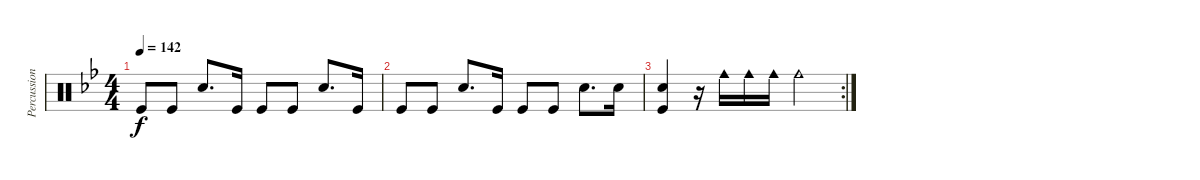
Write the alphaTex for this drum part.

\track ("Percussion" "Percussion") {instrument percussion}
\staff {score}
\articulation defaults
\ts (4 4)
\tempo 142
\clef neutral
\ks gminor "Kick (hit)".8{dy f} "Kick (hit)".8 "Snare (hit) 2".8{d} "Kick (hit)".16 "Kick (hit)".8 "Kick (hit)".8 "Snare (hit) 2".8{d} "Kick (hit)".16
|
"Kick (hit)".8 "Kick (hit)".8 "Snare (hit) 2".8{d} "Kick (hit)".16 "Kick (hit)".8 "Kick (hit)".8 "Snare (hit) 2".8{d} "Snare (hit) 2".16 |
\rc 2
("Snare (hit) 2" "Kick (hit)").4 r.16 "Cowbell medium (hit)".16 "Cowbell medium (hit)".16 "Cowbell medium (hit)".16 "Cowbell medium (hit)".2
